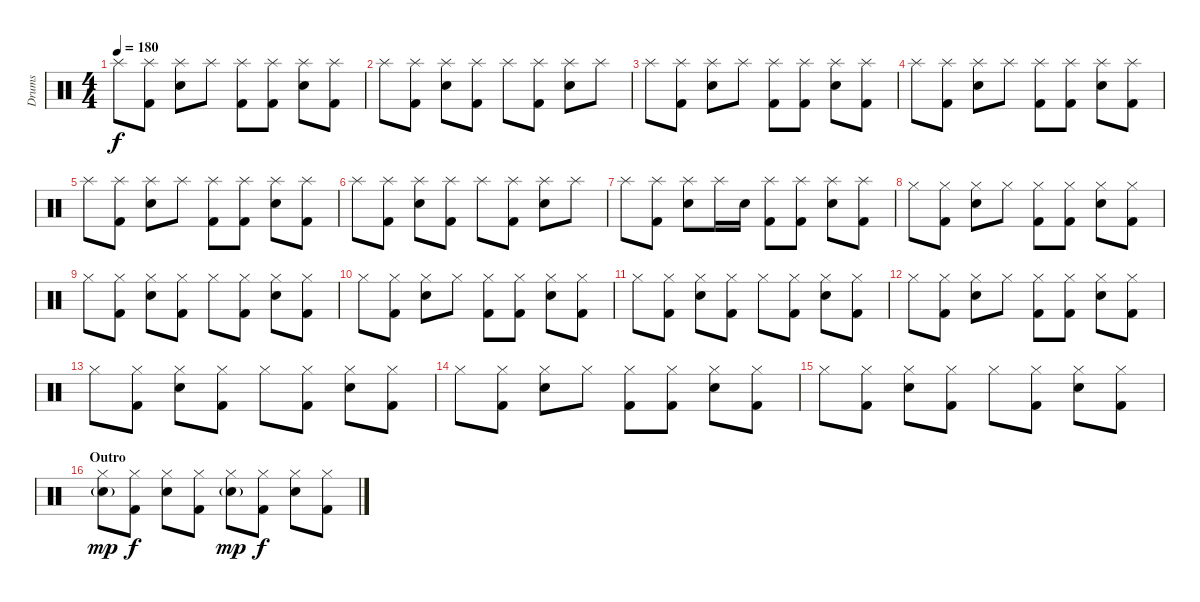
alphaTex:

\track ("Drums" "Drums") {instrument percussion}
\staff {score}
\articulation defaults
\ts (4 4)
\tempo 180
\clef neutral
\ks c "Splash (hit)".8{dy f}
("Splash (hit)" "Kick (hit) 2").8 ("Splash (hit)" "Electric Snare (hit)").8 "Splash (hit)".8 ("Splash (hit)" "Kick (hit) 2").8 ("Splash (hit)" "Kick (hit) 2").8 ("Splash (hit)" "Electric Snare (hit)").8 ("Splash (hit)" "Kick (hit) 2").8 |
"Splash (hit)".8 ("Splash (hit)" "Kick (hit) 2").8 ("Splash (hit)" "Electric Snare (hit)").8 ("Splash (hit)" "Kick (hit) 2").8 "Splash (hit)".8 ("Splash (hit)" "Kick (hit) 2").8 ("Splash (hit)" "Electric Snare (hit)").8 "Splash (hit)".8 |
"Splash (hit)".8 ("Splash (hit)" "Kick (hit) 2").8 ("Splash (hit)" "Electric Snare (hit)").8 "Splash (hit)".8 ("Splash (hit)" "Kick (hit) 2").8 ("Splash (hit)" "Kick (hit) 2").8 ("Splash (hit)" "Electric Snare (hit)").8 ("Splash (hit)" "Kick (hit) 2").8 |
"Splash (hit)".8 ("Splash (hit)" "Kick (hit) 2").8 ("Splash (hit)" "Electric Snare (hit)").8 "Splash (hit)".8 ("Splash (hit)" "Kick (hit) 2").8 ("Splash (hit)" "Kick (hit) 2").8 ("Splash (hit)" "Electric Snare (hit)").8 ("Splash (hit)" "Kick (hit) 2").8 |
"Splash (hit)".8 ("Splash (hit)" "Kick (hit) 2").8 ("Splash (hit)" "Electric Snare (hit)").8 "Splash (hit)".8 ("Splash (hit)" "Kick (hit) 2").8 ("Splash (hit)" "Kick (hit) 2").8 ("Splash (hit)" "Electric Snare (hit)").8 ("Splash (hit)" "Kick (hit) 2").8 |
"Splash (hit)".8 ("Splash (hit)" "Kick (hit) 2").8 ("Splash (hit)" "Electric Snare (hit)").8 ("Splash (hit)" "Kick (hit) 2").8 "Splash (hit)".8 ("Splash (hit)" "Kick (hit) 2").8 ("Splash (hit)" "Electric Snare (hit)").8 "Splash (hit)".8 |
"Splash (hit)".8 ("Splash (hit)" "Kick (hit) 2").8 ("Splash (hit)" "Electric Snare (hit)").8 "Splash (hit)".16 "Electric Snare (hit)".16 ("Splash (hit)" "Kick (hit) 2").8 ("Splash (hit)" "Kick (hit) 2").8 ("Splash (hit)" "Electric Snare (hit)").8 ("Splash (hit)" "Kick (hit) 2").8 |
"Hi-Hat (closed)".8 ("Hi-Hat (closed)" "Kick (hit) 2").8 ("Hi-Hat (closed)" "Electric Snare (hit)").8 "Hi-Hat (closed)".8 ("Hi-Hat (closed)" "Kick (hit) 2").8 ("Hi-Hat (closed)" "Kick (hit) 2").8 ("Hi-Hat (closed)" "Electric Snare (hit)").8 ("Hi-Hat (closed)" "Kick (hit) 2").8 |
"Hi-Hat (closed)".8 ("Hi-Hat (closed)" "Kick (hit) 2").8 ("Hi-Hat (closed)" "Electric Snare (hit)").8 ("Hi-Hat (closed)" "Kick (hit) 2").8 "Hi-Hat (closed)".8 ("Hi-Hat (closed)" "Kick (hit) 2").8 ("Hi-Hat (closed)" "Electric Snare (hit)").8 ("Hi-Hat (closed)" "Kick (hit) 2").8 |
"Hi-Hat (closed)".8 ("Hi-Hat (closed)" "Kick (hit) 2").8 ("Hi-Hat (closed)" "Electric Snare (hit)").8 "Hi-Hat (closed)".8 ("Hi-Hat (closed)" "Kick (hit) 2").8 ("Hi-Hat (closed)" "Kick (hit) 2").8 ("Hi-Hat (closed)" "Electric Snare (hit)").8 ("Hi-Hat (closed)" "Kick (hit) 2").8 |
"Hi-Hat (closed)".8 ("Hi-Hat (closed)" "Kick (hit) 2").8 ("Hi-Hat (closed)" "Electric Snare (hit)").8 ("Hi-Hat (closed)" "Kick (hit) 2").8 "Hi-Hat (closed)".8 ("Hi-Hat (closed)" "Kick (hit) 2").8 ("Hi-Hat (closed)" "Electric Snare (hit)").8 ("Hi-Hat (closed)" "Kick (hit) 2").8 |
"Hi-Hat (closed)".8 ("Hi-Hat (closed)" "Kick (hit) 2").8 ("Hi-Hat (closed)" "Electric Snare (hit)").8 "Hi-Hat (closed)".8 ("Hi-Hat (closed)" "Kick (hit) 2").8 ("Hi-Hat (closed)" "Kick (hit) 2").8 ("Hi-Hat (closed)" "Electric Snare (hit)").8 ("Hi-Hat (closed)" "Kick (hit) 2").8 |
"Hi-Hat (closed)".8 ("Hi-Hat (closed)" "Kick (hit) 2").8 ("Hi-Hat (closed)" "Electric Snare (hit)").8 ("Hi-Hat (closed)" "Kick (hit) 2").8 "Hi-Hat (closed)".8 ("Hi-Hat (closed)" "Kick (hit) 2").8 ("Hi-Hat (closed)" "Electric Snare (hit)").8 ("Hi-Hat (closed)" "Kick (hit) 2").8 |
"Hi-Hat (closed)".8 ("Hi-Hat (closed)" "Kick (hit) 2").8 ("Hi-Hat (closed)" "Electric Snare (hit)").8 "Hi-Hat (closed)".8 ("Hi-Hat (closed)" "Kick (hit) 2").8 ("Hi-Hat (closed)" "Kick (hit) 2").8 ("Hi-Hat (closed)" "Electric Snare (hit)").8 ("Hi-Hat (closed)" "Kick (hit) 2").8 |
"Hi-Hat (closed)".8 ("Hi-Hat (closed)" "Kick (hit) 2").8 ("Hi-Hat (closed)" "Electric Snare (hit)").8 ("Hi-Hat (closed)" "Kick (hit) 2").8 "Hi-Hat (closed)".8 ("Hi-Hat (closed)" "Kick (hit) 2").8 ("Hi-Hat (closed)" "Electric Snare (hit)").8 ("Hi-Hat (closed)" "Kick (hit) 2").8 |
\section ("" "Outro")
("Hi-Hat (closed)" "Electric Snare (hit)"{g}).8{dy mp} ("Hi-Hat (closed)" "Kick (hit) 2").8{dy f} ("Hi-Hat (closed)" "Electric Snare (hit)").8 ("Hi-Hat (closed)" "Kick (hit) 2").8 ("Hi-Hat (closed)" "Electric Snare (hit)"{g}).8{dy mp} ("Hi-Hat (closed)" "Kick (hit) 2").8{dy f} ("Hi-Hat (closed)" "Electric Snare (hit)").8 ("Hi-Hat (closed)" "Kick (hit) 2").8
